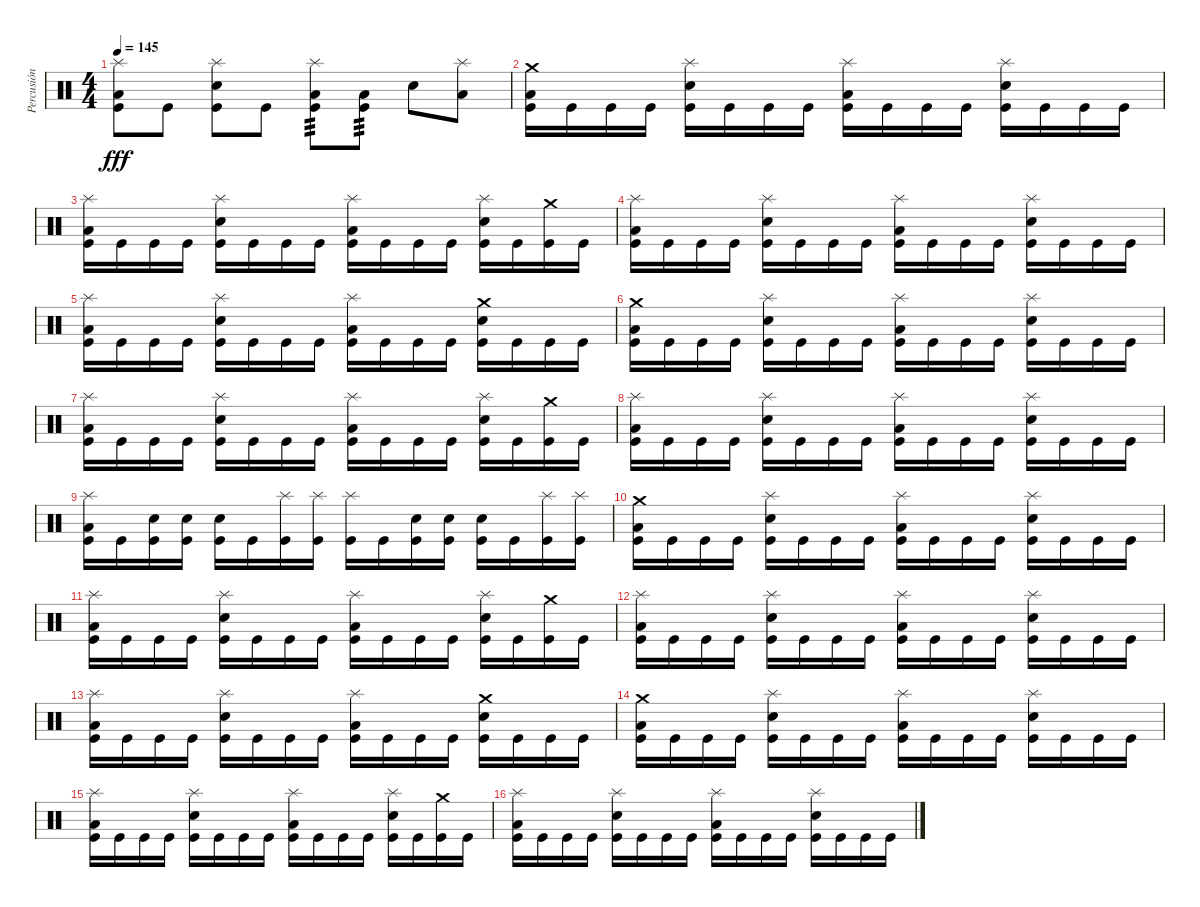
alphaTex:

\track ("Percusión" "Percusión") {instrument percussion}
\staff {score}
\articulation defaults
\ts (4 4)
\tempo 145
\clef neutral
\ks c
("Splash (hit)" "Low Floor Tom (hit)" "Kick (hit)").8{dy fff} "Kick (hit)".8 ("Splash (hit)" "Snare (hit) 2" "Kick (hit)").8 "Kick (hit)".8 ("Splash (hit)" "Low Floor Tom (hit)" "Kick (hit)").8{tp 3} ("Low Floor Tom (hit)" "Kick (hit)").8{tp 3} "Snare (hit) 2".8 ("Splash (hit)" "Low Floor Tom (hit)").8 |
("Crash medium (hit)" "Low Floor Tom (hit)" "Kick (hit)").16 "Kick (hit)".16 "Kick (hit)".16 "Kick (hit)".16 ("Splash (hit)" "Snare (hit) 2" "Kick (hit)").16 "Kick (hit)".16 "Kick (hit)".16 "Kick (hit)".16 ("Splash (hit)" "Low Floor Tom (hit)" "Kick (hit)").16 "Kick (hit)".16 "Kick (hit)".16 "Kick (hit)".16 ("Splash (hit)" "Snare (hit) 2" "Kick (hit)").16 "Kick (hit)".16 "Kick (hit)".16 "Kick (hit)".16 |
("Splash (hit)" "Low Floor Tom (hit)" "Kick (hit)").16 "Kick (hit)".16 "Kick (hit)".16 "Kick (hit)".16 ("Splash (hit)" "Snare (hit) 2" "Kick (hit)").16 "Kick (hit)".16 "Kick (hit)".16 "Kick (hit)".16 ("Splash (hit)" "Low Floor Tom (hit)" "Kick (hit)").16 "Kick (hit)".16 "Kick (hit)".16 "Kick (hit)".16 ("Splash (hit)" "Snare (hit) 2" "Kick (hit)").16 "Kick (hit)".16 ("Crash medium (hit)" "Kick (hit)").16 "Kick (hit)".16 |
("Splash (hit)" "Low Floor Tom (hit)" "Kick (hit)").16 "Kick (hit)".16 "Kick (hit)".16 "Kick (hit)".16 ("Splash (hit)" "Snare (hit) 2" "Kick (hit)").16 "Kick (hit)".16 "Kick (hit)".16 "Kick (hit)".16 ("Splash (hit)" "Low Floor Tom (hit)" "Kick (hit)").16 "Kick (hit)".16 "Kick (hit)".16 "Kick (hit)".16 ("Splash (hit)" "Snare (hit) 2" "Kick (hit)").16 "Kick (hit)".16 "Kick (hit)".16 "Kick (hit)".16 |
("Splash (hit)" "Low Floor Tom (hit)" "Kick (hit)").16 "Kick (hit)".16 "Kick (hit)".16 "Kick (hit)".16 ("Splash (hit)" "Snare (hit) 2" "Kick (hit)").16 "Kick (hit)".16 "Kick (hit)".16 "Kick (hit)".16 ("Splash (hit)" "Low Floor Tom (hit)" "Kick (hit)").16 "Kick (hit)".16 "Kick (hit)".16 "Kick (hit)".16 ("Crash medium (hit)" "Snare (hit) 2" "Kick (hit)").16 "Kick (hit)".16 "Kick (hit)".16 "Kick (hit)".16 |
("Crash medium (hit)" "Low Floor Tom (hit)" "Kick (hit)").16 "Kick (hit)".16 "Kick (hit)".16 "Kick (hit)".16 ("Splash (hit)" "Snare (hit) 2" "Kick (hit)").16 "Kick (hit)".16 "Kick (hit)".16 "Kick (hit)".16 ("Splash (hit)" "Low Floor Tom (hit)" "Kick (hit)").16 "Kick (hit)".16 "Kick (hit)".16 "Kick (hit)".16 ("Splash (hit)" "Snare (hit) 2" "Kick (hit)").16 "Kick (hit)".16 "Kick (hit)".16 "Kick (hit)".16 |
("Splash (hit)" "Low Floor Tom (hit)" "Kick (hit)").16 "Kick (hit)".16 "Kick (hit)".16 "Kick (hit)".16 ("Splash (hit)" "Snare (hit) 2" "Kick (hit)").16 "Kick (hit)".16 "Kick (hit)".16 "Kick (hit)".16 ("Splash (hit)" "Low Floor Tom (hit)" "Kick (hit)").16 "Kick (hit)".16 "Kick (hit)".16 "Kick (hit)".16 ("Splash (hit)" "Snare (hit) 2" "Kick (hit)").16 "Kick (hit)".16 ("Crash medium (hit)" "Kick (hit)").16 "Kick (hit)".16 |
("Splash (hit)" "Low Floor Tom (hit)" "Kick (hit)").16 "Kick (hit)".16 "Kick (hit)".16 "Kick (hit)".16 ("Splash (hit)" "Snare (hit) 2" "Kick (hit)").16 "Kick (hit)".16 "Kick (hit)".16 "Kick (hit)".16 ("Splash (hit)" "Low Floor Tom (hit)" "Kick (hit)").16 "Kick (hit)".16 "Kick (hit)".16 "Kick (hit)".16 ("Splash (hit)" "Snare (hit) 2" "Kick (hit)").16 "Kick (hit)".16 "Kick (hit)".16 "Kick (hit)".16 |
("Splash (hit)" "Low Floor Tom (hit)" "Kick (hit)").16 "Kick (hit)".16 ("Snare (hit) 2" "Kick (hit)").16 ("Snare (hit) 2" "Kick (hit)").16 ("Snare (hit) 2" "Kick (hit)").16 "Kick (hit)".16 ("Splash (hit)" "Kick (hit)").16 ("Splash (hit)" "Kick (hit)").16 ("Splash (hit)" "Kick (hit)").16 "Kick (hit)".16 ("Snare (hit) 2" "Kick (hit)").16 ("Snare (hit) 2" "Kick (hit)").16 ("Snare (hit) 2" "Kick (hit)").16 "Kick (hit)".16 ("Splash (hit)" "Kick (hit)").16 ("Splash (hit)" "Kick (hit)").16 |
("Crash medium (hit)" "Low Floor Tom (hit)" "Kick (hit)").16 "Kick (hit)".16 "Kick (hit)".16 "Kick (hit)".16 ("Splash (hit)" "Snare (hit) 2" "Kick (hit)").16 "Kick (hit)".16 "Kick (hit)".16 "Kick (hit)".16 ("Splash (hit)" "Low Floor Tom (hit)" "Kick (hit)").16 "Kick (hit)".16 "Kick (hit)".16 "Kick (hit)".16 ("Splash (hit)" "Snare (hit) 2" "Kick (hit)").16 "Kick (hit)".16 "Kick (hit)".16 "Kick (hit)".16 |
("Splash (hit)" "Low Floor Tom (hit)" "Kick (hit)").16 "Kick (hit)".16 "Kick (hit)".16 "Kick (hit)".16 ("Splash (hit)" "Snare (hit) 2" "Kick (hit)").16 "Kick (hit)".16 "Kick (hit)".16 "Kick (hit)".16 ("Splash (hit)" "Low Floor Tom (hit)" "Kick (hit)").16 "Kick (hit)".16 "Kick (hit)".16 "Kick (hit)".16 ("Splash (hit)" "Snare (hit) 2" "Kick (hit)").16 "Kick (hit)".16 ("Crash medium (hit)" "Kick (hit)").16 "Kick (hit)".16 |
("Splash (hit)" "Low Floor Tom (hit)" "Kick (hit)").16 "Kick (hit)".16 "Kick (hit)".16 "Kick (hit)".16 ("Splash (hit)" "Snare (hit) 2" "Kick (hit)").16 "Kick (hit)".16 "Kick (hit)".16 "Kick (hit)".16 ("Splash (hit)" "Low Floor Tom (hit)" "Kick (hit)").16 "Kick (hit)".16 "Kick (hit)".16 "Kick (hit)".16 ("Splash (hit)" "Snare (hit) 2" "Kick (hit)").16 "Kick (hit)".16 "Kick (hit)".16 "Kick (hit)".16 |
("Splash (hit)" "Low Floor Tom (hit)" "Kick (hit)").16 "Kick (hit)".16 "Kick (hit)".16 "Kick (hit)".16 ("Splash (hit)" "Snare (hit) 2" "Kick (hit)").16 "Kick (hit)".16 "Kick (hit)".16 "Kick (hit)".16 ("Splash (hit)" "Low Floor Tom (hit)" "Kick (hit)").16 "Kick (hit)".16 "Kick (hit)".16 "Kick (hit)".16 ("Crash medium (hit)" "Snare (hit) 2" "Kick (hit)").16 "Kick (hit)".16 "Kick (hit)".16 "Kick (hit)".16 |
("Crash medium (hit)" "Low Floor Tom (hit)" "Kick (hit)").16 "Kick (hit)".16 "Kick (hit)".16 "Kick (hit)".16 ("Splash (hit)" "Snare (hit) 2" "Kick (hit)").16 "Kick (hit)".16 "Kick (hit)".16 "Kick (hit)".16 ("Splash (hit)" "Low Floor Tom (hit)" "Kick (hit)").16 "Kick (hit)".16 "Kick (hit)".16 "Kick (hit)".16 ("Splash (hit)" "Snare (hit) 2" "Kick (hit)").16 "Kick (hit)".16 "Kick (hit)".16 "Kick (hit)".16 |
("Splash (hit)" "Low Floor Tom (hit)" "Kick (hit)").16 "Kick (hit)".16 "Kick (hit)".16 "Kick (hit)".16 ("Splash (hit)" "Snare (hit) 2" "Kick (hit)").16 "Kick (hit)".16 "Kick (hit)".16 "Kick (hit)".16 ("Splash (hit)" "Low Floor Tom (hit)" "Kick (hit)").16 "Kick (hit)".16 "Kick (hit)".16 "Kick (hit)".16 ("Splash (hit)" "Snare (hit) 2" "Kick (hit)").16 "Kick (hit)".16 ("Crash medium (hit)" "Kick (hit)").16 "Kick (hit)".16 |
("Splash (hit)" "Low Floor Tom (hit)" "Kick (hit)").16 "Kick (hit)".16 "Kick (hit)".16 "Kick (hit)".16 ("Splash (hit)" "Snare (hit) 2" "Kick (hit)").16 "Kick (hit)".16 "Kick (hit)".16 "Kick (hit)".16 ("Splash (hit)" "Low Floor Tom (hit)" "Kick (hit)").16 "Kick (hit)".16 "Kick (hit)".16 "Kick (hit)".16 ("Splash (hit)" "Snare (hit) 2" "Kick (hit)").16 "Kick (hit)".16 "Kick (hit)".16 "Kick (hit)".16
